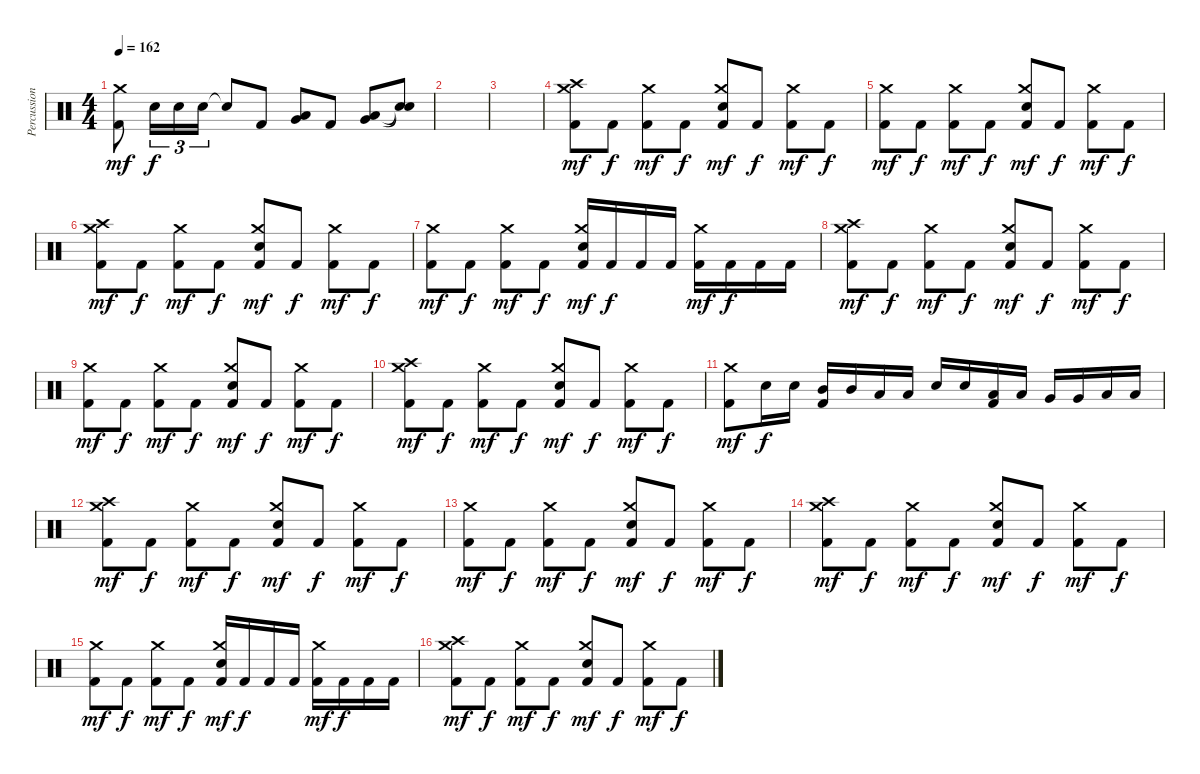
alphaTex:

\track ("Percussion" "Percussion") {instrument percussion}
\staff {score}
\articulation defaults
\ts (4 4)
\tempo 162
\clef neutral
\ks c
("Kick (hit) 2" "Crash medium (hit)").8{dy mf} "Snare (hit) 2".16{tu (3 2) dy f} "Snare (hit) 2".16{tu (3 2)} "Snare (hit) 2".16{tu (3 2)} "Snare (hit)"{t}.8 "Kick (hit) 2".8 ("Low Tom (hit)" "Very Low Tom (hit)").8 "Kick (hit) 2".8 ("Very Low Tom (hit)" "Low Floor Tom (hit)").8 ("Snare (hit)"{t} "Snare (hit)"{t}).8 |
|
|
("Kick (hit) 2" "Crash high (hit)" "Crash medium (hit)").8{dy mf} "Kick (hit) 2".8{dy f} ("Kick (hit) 2" "Crash medium (hit)").8{dy mf} "Kick (hit) 2".8{dy f} ("Kick (hit) 2" "Snare (hit) 2" "Crash medium (hit)").8{dy mf} "Kick (hit) 2".8{dy f} ("Kick (hit) 2" "Crash medium (hit)").8{dy mf} "Kick (hit) 2".8{dy f} |
("Kick (hit) 2" "Crash medium (hit)").8{dy mf} "Kick (hit) 2".8{dy f} ("Kick (hit) 2" "Crash medium (hit)").8{dy mf} "Kick (hit) 2".8{dy f} ("Kick (hit) 2" "Snare (hit) 2" "Crash medium (hit)").8{dy mf} "Kick (hit) 2".8{dy f} ("Kick (hit) 2" "Crash medium (hit)").8{dy mf} "Kick (hit) 2".8{dy f} |
("Kick (hit) 2" "Crash high (hit)" "Crash medium (hit)").8{dy mf} "Kick (hit) 2".8{dy f} ("Kick (hit) 2" "Crash medium (hit)").8{dy mf} "Kick (hit) 2".8{dy f} ("Kick (hit) 2" "Snare (hit) 2" "Crash medium (hit)").8{dy mf} "Kick (hit) 2".8{dy f} ("Kick (hit) 2" "Crash medium (hit)").8{dy mf} "Kick (hit) 2".8{dy f} |
("Kick (hit) 2" "Crash medium (hit)").8{dy mf} "Kick (hit) 2".8{dy f} ("Kick (hit) 2" "Crash medium (hit)").8{dy mf} "Kick (hit) 2".8{dy f} ("Kick (hit) 2" "Snare (hit) 2" "Crash medium (hit)").16{dy mf} "Kick (hit) 2".16{dy f} "Kick (hit) 2".16 "Kick (hit) 2".16 ("Kick (hit) 2" "Crash medium (hit)").16{dy mf} "Kick (hit) 2".16{dy f} "Kick (hit) 2".16 "Kick (hit) 2".16 |
("Kick (hit) 2" "Crash high (hit)" "Crash medium (hit)").8{dy mf} "Kick (hit) 2".8{dy f} ("Kick (hit) 2" "Crash medium (hit)").8{dy mf} "Kick (hit) 2".8{dy f} ("Kick (hit) 2" "Snare (hit) 2" "Crash medium (hit)").8{dy mf} "Kick (hit) 2".8{dy f} ("Kick (hit) 2" "Crash medium (hit)").8{dy mf} "Kick (hit) 2".8{dy f} |
("Kick (hit) 2" "Crash medium (hit)").8{dy mf} "Kick (hit) 2".8{dy f} ("Kick (hit) 2" "Crash medium (hit)").8{dy mf} "Kick (hit) 2".8{dy f} ("Kick (hit) 2" "Snare (hit) 2" "Crash medium (hit)").8{dy mf} "Kick (hit) 2".8{dy f} ("Kick (hit) 2" "Crash medium (hit)").8{dy mf} "Kick (hit) 2".8{dy f} |
("Kick (hit) 2" "Crash high (hit)" "Crash medium (hit)").8{dy mf} "Kick (hit) 2".8{dy f} ("Kick (hit) 2" "Crash medium (hit)").8{dy mf} "Kick (hit) 2".8{dy f} ("Kick (hit) 2" "Snare (hit) 2" "Crash medium (hit)").8{dy mf} "Kick (hit) 2".8{dy f} ("Kick (hit) 2" "Crash medium (hit)").8{dy mf} "Kick (hit) 2".8{dy f} |
("Kick (hit) 2" "Crash medium (hit)").8{dy mf} "Snare (hit) 2".16{dy f} "Snare (hit) 2".16 ("Kick (hit) 2" "Mid Tom (hit)").16 "Mid Tom (hit)".16 "Low Tom (hit)".16 "Low Tom (hit)".16 "Snare (hit) 2".16 "Snare (hit) 2".16 ("Kick (hit) 2" "Low Tom (hit)").16 "Low Tom (hit)".16 "Very Low Tom (hit)".16 "Very Low Tom (hit)".16 "Low Floor Tom (hit)".16 "Low Floor Tom (hit)".16 |
("Kick (hit) 2" "Crash high (hit)" "Crash medium (hit)").8{dy mf} "Kick (hit) 2".8{dy f} ("Kick (hit) 2" "Crash medium (hit)").8{dy mf} "Kick (hit) 2".8{dy f} ("Kick (hit) 2" "Snare (hit) 2" "Crash medium (hit)").8{dy mf} "Kick (hit) 2".8{dy f} ("Kick (hit) 2" "Crash medium (hit)").8{dy mf} "Kick (hit) 2".8{dy f} |
("Kick (hit) 2" "Crash medium (hit)").8{dy mf} "Kick (hit) 2".8{dy f} ("Kick (hit) 2" "Crash medium (hit)").8{dy mf} "Kick (hit) 2".8{dy f} ("Kick (hit) 2" "Snare (hit) 2" "Crash medium (hit)").8{dy mf} "Kick (hit) 2".8{dy f} ("Kick (hit) 2" "Crash medium (hit)").8{dy mf} "Kick (hit) 2".8{dy f} |
("Kick (hit) 2" "Crash high (hit)" "Crash medium (hit)").8{dy mf} "Kick (hit) 2".8{dy f} ("Kick (hit) 2" "Crash medium (hit)").8{dy mf} "Kick (hit) 2".8{dy f} ("Kick (hit) 2" "Snare (hit) 2" "Crash medium (hit)").8{dy mf} "Kick (hit) 2".8{dy f} ("Kick (hit) 2" "Crash medium (hit)").8{dy mf} "Kick (hit) 2".8{dy f} |
("Kick (hit) 2" "Crash medium (hit)").8{dy mf} "Kick (hit) 2".8{dy f} ("Kick (hit) 2" "Crash medium (hit)").8{dy mf} "Kick (hit) 2".8{dy f} ("Kick (hit) 2" "Snare (hit) 2" "Crash medium (hit)").16{dy mf} "Kick (hit) 2".16{dy f} "Kick (hit) 2".16 "Kick (hit) 2".16 ("Kick (hit) 2" "Crash medium (hit)").16{dy mf} "Kick (hit) 2".16{dy f} "Kick (hit) 2".16 "Kick (hit) 2".16 |
("Kick (hit) 2" "Crash high (hit)" "Crash medium (hit)").8{dy mf} "Kick (hit) 2".8{dy f} ("Kick (hit) 2" "Crash medium (hit)").8{dy mf} "Kick (hit) 2".8{dy f} ("Kick (hit) 2" "Snare (hit) 2" "Crash medium (hit)").8{dy mf} "Kick (hit) 2".8{dy f} ("Kick (hit) 2" "Crash medium (hit)").8{dy mf} "Kick (hit) 2".8{dy f}
